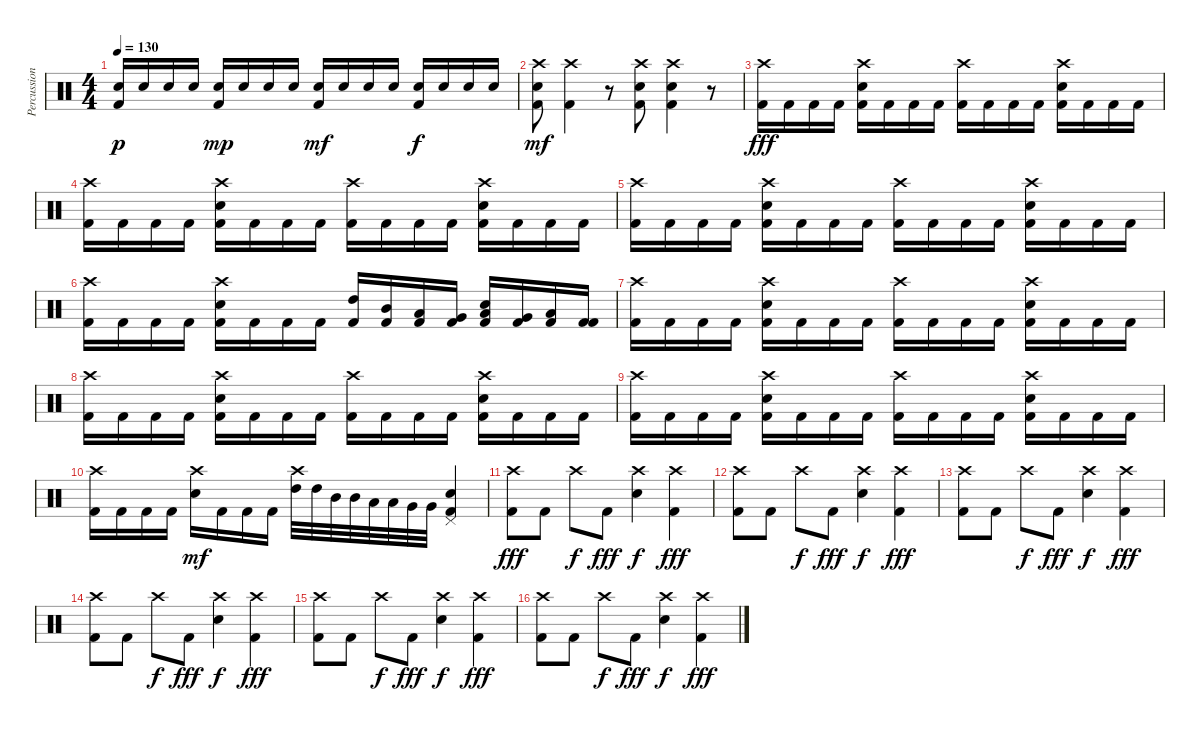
\track ("Percussion" "Percussion") {instrument percussion}
\staff {score}
\articulation defaults
\ts (4 4)
\tempo 130
\clef neutral
\ks c
("Electric Snare (hit)" "Kick (hit) 2").16{dy p} "Electric Snare (hit)".16 "Electric Snare (hit)".16 "Electric Snare (hit)".16 ("Electric Snare (hit)" "Kick (hit) 2").16{dy mp} "Electric Snare (hit)".16 "Electric Snare (hit)".16 "Electric Snare (hit)".16 ("Electric Snare (hit)" "Kick (hit) 2").16{dy mf} "Electric Snare (hit)".16 "Electric Snare (hit)".16 "Electric Snare (hit)".16 ("Electric Snare (hit)" "Kick (hit) 2").16{dy f} "Electric Snare (hit)".16 "Electric Snare (hit)".16 "Electric Snare (hit)".16 |
("Crash high (hit)" "Electric Snare (hit)" "Kick (hit) 2").8{dy mf} ("Crash high (hit)" "Kick (hit) 2").4 r.8 ("Crash high (hit)" "Electric Snare (hit)" "Kick (hit) 2").8 ("Crash high (hit)" "Electric Snare (hit)" "Kick (hit) 2").4 r.8 |
("Crash high (hit)" "Kick (hit) 2").16{dy fff} "Kick (hit) 2".16 "Kick (hit) 2".16 "Kick (hit) 2".16 ("Crash high (hit)" "Electric Snare (hit)" "Kick (hit) 2").16 "Kick (hit) 2".16 "Kick (hit) 2".16 "Kick (hit) 2".16 ("Crash high (hit)" "Kick (hit) 2").16 "Kick (hit) 2".16 "Kick (hit) 2".16 "Kick (hit) 2".16 ("Crash high (hit)" "Electric Snare (hit)" "Kick (hit) 2").16 "Kick (hit) 2".16 "Kick (hit) 2".16 "Kick (hit) 2".16 |
("Crash high (hit)" "Kick (hit) 2").16 "Kick (hit) 2".16 "Kick (hit) 2".16 "Kick (hit) 2".16 ("Crash high (hit)" "Electric Snare (hit)" "Kick (hit) 2").16 "Kick (hit) 2".16 "Kick (hit) 2".16 "Kick (hit) 2".16 ("Crash high (hit)" "Kick (hit) 2").16 "Kick (hit) 2".16 "Kick (hit) 2".16 "Kick (hit) 2".16 ("Crash high (hit)" "Electric Snare (hit)" "Kick (hit) 2").16 "Kick (hit) 2".16 "Kick (hit) 2".16 "Kick (hit) 2".16 |
("Crash high (hit)" "Kick (hit) 2").16 "Kick (hit) 2".16 "Kick (hit) 2".16 "Kick (hit) 2".16 ("Crash high (hit)" "Electric Snare (hit)" "Kick (hit) 2").16 "Kick (hit) 2".16 "Kick (hit) 2".16 "Kick (hit) 2".16 ("Crash high (hit)" "Kick (hit) 2").16 "Kick (hit) 2".16 "Kick (hit) 2".16 "Kick (hit) 2".16 ("Crash high (hit)" "Electric Snare (hit)" "Kick (hit) 2").16 "Kick (hit) 2".16 "Kick (hit) 2".16 "Kick (hit) 2".16 |
("Crash high (hit)" "Kick (hit) 2").16 "Kick (hit) 2".16 "Kick (hit) 2".16 "Kick (hit) 2".16 ("Crash high (hit)" "Electric Snare (hit)" "Kick (hit) 2").16 "Kick (hit) 2".16 "Kick (hit) 2".16 "Kick (hit) 2".16 ("High Tom (hit)" "Kick (hit) 2").16 ("Mid Tom (hit)" "Kick (hit) 2").16 ("Low Tom (hit)" "Kick (hit) 2").16 ("Very Low Tom (hit)" "Kick (hit) 2").16 ("Low Tom (hit)" "Electric Snare (hit)" "Kick (hit) 2").16 ("Very Low Tom (hit)" "Kick (hit) 2").16 ("Low Floor Tom (hit)" "Kick (hit) 2").16 ("Kick (hit) 2" "Kick (hit) 2").16 |
("Crash high (hit)" "Kick (hit) 2").16 "Kick (hit) 2".16 "Kick (hit) 2".16 "Kick (hit) 2".16 ("Crash high (hit)" "Electric Snare (hit)" "Kick (hit) 2").16 "Kick (hit) 2".16 "Kick (hit) 2".16 "Kick (hit) 2".16 ("Crash high (hit)" "Kick (hit) 2").16 "Kick (hit) 2".16 "Kick (hit) 2".16 "Kick (hit) 2".16 ("Crash high (hit)" "Electric Snare (hit)" "Kick (hit) 2").16 "Kick (hit) 2".16 "Kick (hit) 2".16 "Kick (hit) 2".16 |
("Crash high (hit)" "Kick (hit) 2").16 "Kick (hit) 2".16 "Kick (hit) 2".16 "Kick (hit) 2".16 ("Crash high (hit)" "Electric Snare (hit)" "Kick (hit) 2").16 "Kick (hit) 2".16 "Kick (hit) 2".16 "Kick (hit) 2".16 ("Crash high (hit)" "Kick (hit) 2").16 "Kick (hit) 2".16 "Kick (hit) 2".16 "Kick (hit) 2".16 ("Crash high (hit)" "Electric Snare (hit)" "Kick (hit) 2").16 "Kick (hit) 2".16 "Kick (hit) 2".16 "Kick (hit) 2".16 |
("Crash high (hit)" "Kick (hit) 2").16 "Kick (hit) 2".16 "Kick (hit) 2".16 "Kick (hit) 2".16 ("Crash high (hit)" "Electric Snare (hit)" "Kick (hit) 2").16 "Kick (hit) 2".16 "Kick (hit) 2".16 "Kick (hit) 2".16 ("Crash high (hit)" "Kick (hit) 2").16 "Kick (hit) 2".16 "Kick (hit) 2".16 "Kick (hit) 2".16 ("Crash high (hit)" "Electric Snare (hit)" "Kick (hit) 2").16 "Kick (hit) 2".16 "Kick (hit) 2".16 "Kick (hit) 2".16 |
("Crash high (hit)" "Kick (hit) 2").16 "Kick (hit) 2".16 "Kick (hit) 2".16 "Kick (hit) 2".16 ("Crash high (hit)" "Electric Snare (hit)").16{dy mf} "Kick (hit) 2".16 "Kick (hit) 2".16 "Kick (hit) 2".16 ("Crash high (hit)" "High Tom (hit)").32 "High Tom (hit)".32 "Mid Tom (hit)".32 "Mid Tom (hit)".32 "Low Tom (hit)".32 "Low Tom (hit)".32 "Very Low Tom (hit)".32 "Very Low Tom (hit)".32 ("Pedal Hi-Hat (hit)" "Electric Snare (hit)" "Kick (hit) 2").4 |
("Crash high (hit)" "Kick (hit) 2").8{dy fff} "Kick (hit) 2".8 "Crash high (hit)".8{dy f} "Kick (hit) 2".8{dy fff} ("Crash high (hit)" "Electric Snare (hit)").4{dy f} ("Crash high (hit)" "Kick (hit) 2").4{dy fff} |
("Crash high (hit)" "Kick (hit) 2").8 "Kick (hit) 2".8 "Crash high (hit)".8{dy f} "Kick (hit) 2".8{dy fff} ("Crash high (hit)" "Electric Snare (hit)").4{dy f} ("Crash high (hit)" "Kick (hit) 2").4{dy fff} |
("Crash high (hit)" "Kick (hit) 2").8 "Kick (hit) 2".8 "Crash high (hit)".8{dy f} "Kick (hit) 2".8{dy fff} ("Crash high (hit)" "Electric Snare (hit)").4{dy f} ("Crash high (hit)" "Kick (hit) 2").4{dy fff} |
("Crash high (hit)" "Kick (hit) 2").8 "Kick (hit) 2".8 "Crash high (hit)".8{dy f} "Kick (hit) 2".8{dy fff} ("Crash high (hit)" "Electric Snare (hit)").4{dy f} ("Crash high (hit)" "Kick (hit) 2").4{dy fff} |
("Crash high (hit)" "Kick (hit) 2").8 "Kick (hit) 2".8 "Crash high (hit)".8{dy f} "Kick (hit) 2".8{dy fff} ("Crash high (hit)" "Electric Snare (hit)").4{dy f} ("Crash high (hit)" "Kick (hit) 2").4{dy fff} |
("Crash high (hit)" "Kick (hit) 2").8 "Kick (hit) 2".8 "Crash high (hit)".8{dy f} "Kick (hit) 2".8{dy fff} ("Crash high (hit)" "Electric Snare (hit)").4{dy f} ("Crash high (hit)" "Kick (hit) 2").4{dy fff}
